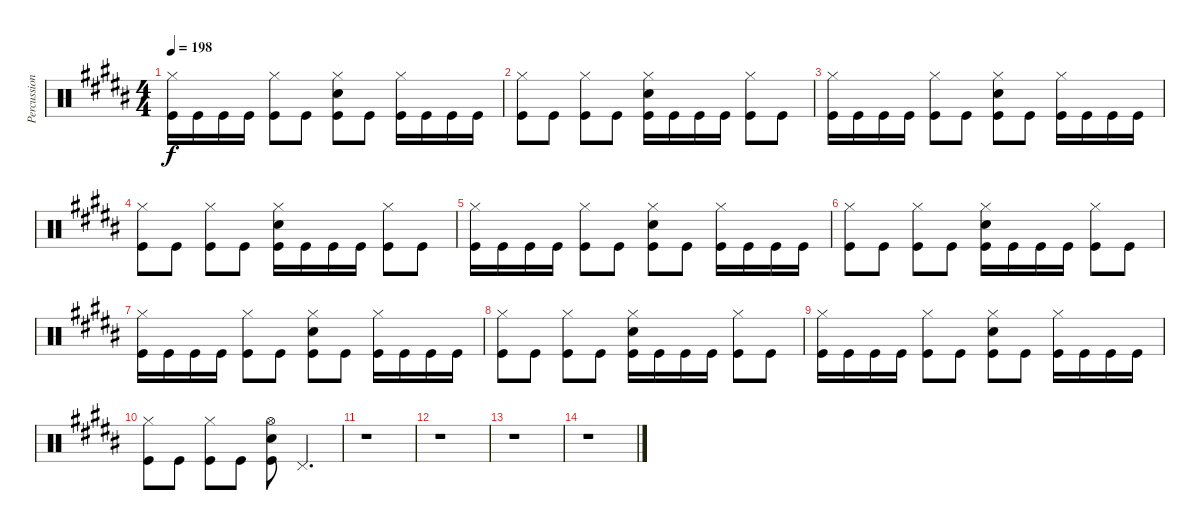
\track ("Percussion" "Percussion") {instrument percussion}
\staff {score}
\articulation defaults
\ts (4 4)
\tempo 198
\clef neutral
\ks b
("Hi-Hat (closed)" "Kick (hit)").16{dy f} "Kick (hit)".16 "Kick (hit)".16 "Kick (hit)".16 ("Hi-Hat (closed)" "Kick (hit)").8 "Kick (hit)".8 ("Hi-Hat (closed)" "Electric Snare (hit)" "Kick (hit)").8 "Kick (hit)".8 ("Hi-Hat (closed)" "Kick (hit)").16 "Kick (hit)".16 "Kick (hit)".16 "Kick (hit)".16 |
("Hi-Hat (closed)" "Kick (hit)").8 "Kick (hit)".8 ("Hi-Hat (closed)" "Kick (hit)").8 "Kick (hit)".8 ("Hi-Hat (closed)" "Electric Snare (hit)" "Kick (hit)").16 "Kick (hit)".16 "Kick (hit)".16 "Kick (hit)".16 ("Hi-Hat (closed)" "Kick (hit)").8 "Kick (hit)".8 |
("Hi-Hat (closed)" "Kick (hit)").16 "Kick (hit)".16 "Kick (hit)".16 "Kick (hit)".16 ("Hi-Hat (closed)" "Kick (hit)").8 "Kick (hit)".8 ("Hi-Hat (closed)" "Electric Snare (hit)" "Kick (hit)").8 "Kick (hit)".8 ("Hi-Hat (closed)" "Kick (hit)").16 "Kick (hit)".16 "Kick (hit)".16 "Kick (hit)".16 |
("Hi-Hat (closed)" "Kick (hit)").8 "Kick (hit)".8 ("Hi-Hat (closed)" "Kick (hit)").8 "Kick (hit)".8 ("Hi-Hat (closed)" "Electric Snare (hit)" "Kick (hit)").16 "Kick (hit)".16 "Kick (hit)".16 "Kick (hit)".16 ("Hi-Hat (closed)" "Kick (hit)").8 "Kick (hit)".8 |
("Hi-Hat (closed)" "Kick (hit)").16 "Kick (hit)".16 "Kick (hit)".16 "Kick (hit)".16 ("Hi-Hat (closed)" "Kick (hit)").8 "Kick (hit)".8 ("Hi-Hat (closed)" "Electric Snare (hit)" "Kick (hit)").8 "Kick (hit)".8 ("Hi-Hat (closed)" "Kick (hit)").16 "Kick (hit)".16 "Kick (hit)".16 "Kick (hit)".16 |
("Hi-Hat (closed)" "Kick (hit)").8 "Kick (hit)".8 ("Hi-Hat (closed)" "Kick (hit)").8 "Kick (hit)".8 ("Hi-Hat (closed)" "Electric Snare (hit)" "Kick (hit)").16 "Kick (hit)".16 "Kick (hit)".16 "Kick (hit)".16 ("Hi-Hat (closed)" "Kick (hit)").8 "Kick (hit)".8 |
("Hi-Hat (closed)" "Kick (hit)").16 "Kick (hit)".16 "Kick (hit)".16 "Kick (hit)".16 ("Hi-Hat (closed)" "Kick (hit)").8 "Kick (hit)".8 ("Hi-Hat (closed)" "Electric Snare (hit)" "Kick (hit)").8 "Kick (hit)".8 ("Hi-Hat (closed)" "Kick (hit)").16 "Kick (hit)".16 "Kick (hit)".16 "Kick (hit)".16 |
("Hi-Hat (closed)" "Kick (hit)").8 "Kick (hit)".8 ("Hi-Hat (closed)" "Kick (hit)").8 "Kick (hit)".8 ("Hi-Hat (closed)" "Electric Snare (hit)" "Kick (hit)").16 "Kick (hit)".16 "Kick (hit)".16 "Kick (hit)".16 ("Hi-Hat (closed)" "Kick (hit)").8 "Kick (hit)".8 |
("Hi-Hat (closed)" "Kick (hit)").16 "Kick (hit)".16 "Kick (hit)".16 "Kick (hit)".16 ("Hi-Hat (closed)" "Kick (hit)").8 "Kick (hit)".8 ("Hi-Hat (closed)" "Electric Snare (hit)" "Kick (hit)").8 "Kick (hit)".8 ("Hi-Hat (closed)" "Kick (hit)").16 "Kick (hit)".16 "Kick (hit)".16 "Kick (hit)".16 |
("Hi-Hat (closed)" "Kick (hit)").8 "Kick (hit)".8 ("Hi-Hat (closed)" "Kick (hit)").8 "Kick (hit)".8 ("Hi-Hat (open)" "Electric Snare (hit)" "Kick (hit)").8 "Pedal Hi-Hat (hit)".4{d} |
r.1 |
r.1 |
r.1 |
r.1
